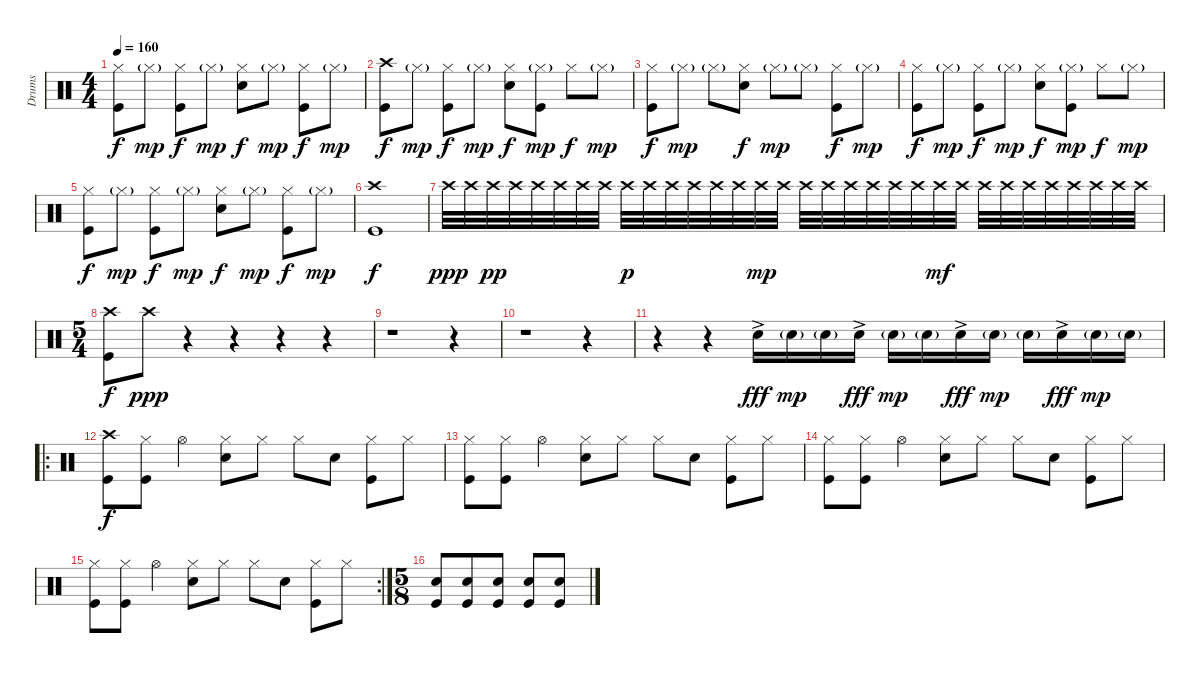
\track ("Drums" "Drums") {instrument percussion}
\staff {score}
\articulation defaults
\ts (4 4)
\tempo 160
\clef neutral
\ks c
("Hi-Hat (closed)" "Kick (hit)").8{dy f} "Hi-Hat (closed)"{g}.8{dy mp} ("Hi-Hat (closed)" "Kick (hit)").8{dy f} "Hi-Hat (closed)"{g}.8{dy mp} ("Hi-Hat (closed)" "Electric Snare (hit)").8{dy f} "Hi-Hat (closed)"{g}.8{dy mp} ("Hi-Hat (closed)" "Kick (hit)").8{dy f} "Hi-Hat (closed)"{g}.8{dy mp} |
("Crash high (hit)" "Kick (hit)").8{dy f} "Hi-Hat (closed)"{g}.8{dy mp} ("Hi-Hat (closed)" "Kick (hit)").8{dy f} "Hi-Hat (closed)"{g}.8{dy mp} ("Hi-Hat (closed)" "Electric Snare (hit)").8{dy f} ("Hi-Hat (closed)"{g} "Kick (hit)").8{dy mp} "Hi-Hat (closed)".8{dy f} "Hi-Hat (closed)"{g}.8{dy mp} |
("Hi-Hat (closed)" "Kick (hit)").8{dy f} "Hi-Hat (closed)"{g}.8{dy mp} "Hi-Hat (closed)"{g}.8 ("Hi-Hat (closed)" "Electric Snare (hit)").8{dy f} "Hi-Hat (closed)"{g}.8{dy mp} "Hi-Hat (closed)"{g}.8 ("Hi-Hat (closed)" "Kick (hit)").8{dy f} "Hi-Hat (closed)"{g}.8{dy mp} |
("Hi-Hat (closed)" "Kick (hit)").8{dy f} "Hi-Hat (closed)"{g}.8{dy mp} ("Hi-Hat (closed)" "Kick (hit)").8{dy f} "Hi-Hat (closed)"{g}.8{dy mp} ("Hi-Hat (closed)" "Electric Snare (hit)").8{dy f} ("Hi-Hat (closed)"{g} "Kick (hit)").8{dy mp} "Hi-Hat (closed)".8{dy f} "Hi-Hat (closed)"{g}.8{dy mp} |
("Hi-Hat (closed)" "Kick (hit)").8{dy f} "Hi-Hat (closed)"{g}.8{dy mp} ("Hi-Hat (closed)" "Kick (hit)").8{dy f} "Hi-Hat (closed)"{g}.8{dy mp} ("Hi-Hat (closed)" "Electric Snare (hit)").8{dy f} "Hi-Hat (closed)"{g}.8{dy mp} ("Hi-Hat (closed)" "Kick (hit)").8{dy f} "Hi-Hat (closed)"{g}.8{dy mp} |
("Crash high (hit)" "Kick (hit)").1{dy f} |
"Crash high (hit)".32{dy ppp} "Crash high (hit)".32 "Crash high (hit)".32{dy pp} "Crash high (hit)".32 "Crash high (hit)".32 "Crash high (hit)".32 "Crash high (hit)".32 "Crash high (hit)".32 "Crash high (hit)".32{dy p} "Crash high (hit)".32 "Crash high (hit)".32 "Crash high (hit)".32 "Crash high (hit)".32 "Crash high (hit)".32 "Crash high (hit)".32{dy mp} "Crash high (hit)".32 "Crash high (hit)".32 "Crash high (hit)".32 "Crash high (hit)".32 "Crash high (hit)".32 "Crash high (hit)".32 "Crash high (hit)".32 "Crash high (hit)".32{dy mf} "Crash high (hit)".32 "Crash high (hit)".32 "Crash high (hit)".32 "Crash high (hit)".32 "Crash high (hit)".32 "Crash high (hit)".32 "Crash high (hit)".32 "Crash high (hit)".32 "Crash high (hit)".32 |
\ts (5 4)
("Crash high (hit)" "Kick (hit)").8{dy f} "Crash high (hit)".8{dy ppp} r.4 r.4 r.4 r.4 |
r.1 r.4 |
r.1 r.4 |
r.4 r.4 "Electric Snare (hit)"{ac}.16{dy fff} "Electric Snare (hit)"{g}.16{dy mp} "Electric Snare (hit)"{g}.16 "Electric Snare (hit)"{ac}.16{dy fff} "Electric Snare (hit)"{g}.16{dy mp} "Electric Snare (hit)"{g}.16 "Electric Snare (hit)"{ac}.16{dy fff} "Electric Snare (hit)"{g}.16{dy mp} "Electric Snare (hit)"{g}.16 "Electric Snare (hit)"{ac}.16{dy fff} "Electric Snare (hit)"{g}.16{dy mp} "Electric Snare (hit)"{g}.16 |
\ro
("Crash high (hit)" "Kick (hit)").8{dy f} ("Hi-Hat (closed)" "Kick (hit)").8 "Hi-Hat (open)".4 ("Hi-Hat (closed)" "Electric Snare (hit)").8 "Hi-Hat (closed)".8 "Hi-Hat (closed)".8 "Electric Snare (hit)".8 ("Hi-Hat (closed)" "Kick (hit)").8 "Hi-Hat (closed)".8 |
("Hi-Hat (closed)" "Kick (hit)").8 ("Hi-Hat (closed)" "Kick (hit)").8 "Hi-Hat (open)".4 ("Hi-Hat (closed)" "Electric Snare (hit)").8 "Hi-Hat (closed)".8 "Hi-Hat (closed)".8 "Electric Snare (hit)".8 ("Hi-Hat (closed)" "Kick (hit)").8 "Hi-Hat (closed)".8 |
("Hi-Hat (closed)" "Kick (hit)").8 ("Hi-Hat (closed)" "Kick (hit)").8 "Hi-Hat (open)".4 ("Hi-Hat (closed)" "Electric Snare (hit)").8 "Hi-Hat (closed)".8 "Hi-Hat (closed)".8 "Electric Snare (hit)".8 ("Hi-Hat (closed)" "Kick (hit)").8 "Hi-Hat (closed)".8 |
\rc 2
("Hi-Hat (closed)" "Kick (hit)").8 ("Hi-Hat (closed)" "Kick (hit)").8 "Hi-Hat (open)".4 ("Hi-Hat (closed)" "Electric Snare (hit)").8 "Hi-Hat (closed)".8 "Hi-Hat (closed)".8 "Electric Snare (hit)".8 ("Hi-Hat (closed)" "Kick (hit)").8 "Hi-Hat (closed)".8 |
\ts (5 8)
("Electric Snare (hit)" "Kick (hit)").8 ("Electric Snare (hit)" "Kick (hit)").8 ("Electric Snare (hit)" "Kick (hit)").8 ("Electric Snare (hit)" "Kick (hit)").8 ("Electric Snare (hit)" "Kick (hit)").8
